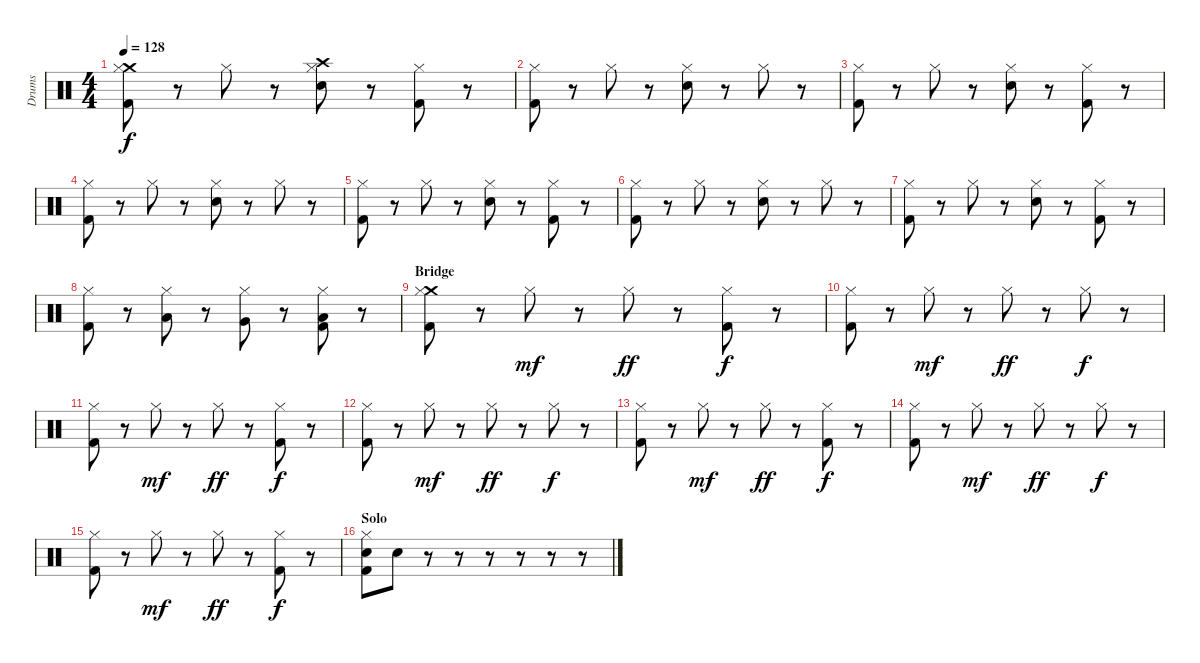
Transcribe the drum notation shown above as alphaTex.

\track ("Drums" "Drums") {instrument percussion}
\staff {score}
\articulation defaults
\ts (4 4)
\tempo 128
\clef neutral
\ks c
("Crash medium (hit)" "Hi-Hat (closed)" "Kick (hit) 2").8{dy f} r.8 "Hi-Hat (closed)".8 r.8 ("Crash high (hit)" "Hi-Hat (closed)" "Snare (hit) 2").8 r.8 ("Hi-Hat (closed)" "Kick (hit) 2").8 r.8 |
("Hi-Hat (closed)" "Kick (hit) 2").8 r.8 "Hi-Hat (closed)".8 r.8 ("Snare (hit) 2" "Hi-Hat (closed)").8 r.8 "Hi-Hat (closed)".8 r.8 |
("Hi-Hat (closed)" "Kick (hit) 2").8 r.8 "Hi-Hat (closed)".8 r.8 ("Snare (hit) 2" "Hi-Hat (closed)").8 r.8 ("Hi-Hat (closed)" "Kick (hit) 2").8 r.8 |
("Hi-Hat (closed)" "Kick (hit) 2").8 r.8 "Hi-Hat (closed)".8 r.8 ("Snare (hit) 2" "Hi-Hat (closed)").8 r.8 "Hi-Hat (closed)".8 r.8 |
("Hi-Hat (closed)" "Kick (hit) 2").8 r.8 "Hi-Hat (closed)".8 r.8 ("Snare (hit) 2" "Hi-Hat (closed)").8 r.8 ("Hi-Hat (closed)" "Kick (hit) 2").8 r.8 |
("Hi-Hat (closed)" "Kick (hit) 2").8 r.8 "Hi-Hat (closed)".8 r.8 ("Snare (hit) 2" "Hi-Hat (closed)").8 r.8 "Hi-Hat (closed)".8 r.8 |
("Hi-Hat (closed)" "Kick (hit) 2").8 r.8 "Hi-Hat (closed)".8 r.8 ("Snare (hit) 2" "Hi-Hat (closed)").8 r.8 ("Hi-Hat (closed)" "Kick (hit) 2").8 r.8 |
("Hi-Hat (closed)" "Kick (hit) 2").8 r.8 ("Hi-Hat (closed)" "Low Tom (hit)").8 r.8 ("Hi-Hat (closed)" "Very Low Tom (hit)").8 r.8 ("Hi-Hat (closed)" "Low Floor Tom (hit)" "Kick (hit) 2").8 r.8 |
\section ("" "Bridge")
("Crash medium (hit)" "Hi-Hat (closed)" "Kick (hit) 2").8 r.8 "Hi-Hat (closed)".8{dy mf} r.8 "Hi-Hat (closed)".8{dy ff} r.8 ("Hi-Hat (closed)" "Kick (hit) 2").8{dy f} r.8 |
("Hi-Hat (closed)" "Kick (hit) 2").8 r.8 "Hi-Hat (closed)".8{dy mf} r.8 "Hi-Hat (closed)".8{dy ff} r.8 "Hi-Hat (closed)".8{dy f} r.8 |
("Hi-Hat (closed)" "Kick (hit) 2").8 r.8 "Hi-Hat (closed)".8{dy mf} r.8 "Hi-Hat (closed)".8{dy ff} r.8 ("Hi-Hat (closed)" "Kick (hit) 2").8{dy f} r.8 |
("Hi-Hat (closed)" "Kick (hit) 2").8 r.8 "Hi-Hat (closed)".8{dy mf} r.8 "Hi-Hat (closed)".8{dy ff} r.8 "Hi-Hat (closed)".8{dy f} r.8 |
("Hi-Hat (closed)" "Kick (hit) 2").8 r.8 "Hi-Hat (closed)".8{dy mf} r.8 "Hi-Hat (closed)".8{dy ff} r.8 ("Hi-Hat (closed)" "Kick (hit) 2").8{dy f} r.8 |
("Hi-Hat (closed)" "Kick (hit) 2").8 r.8 "Hi-Hat (closed)".8{dy mf} r.8 "Hi-Hat (closed)".8{dy ff} r.8 "Hi-Hat (closed)".8{dy f} r.8 |
("Hi-Hat (closed)" "Kick (hit) 2").8 r.8 "Hi-Hat (closed)".8{dy mf} r.8 "Hi-Hat (closed)".8{dy ff} r.8 ("Hi-Hat (closed)" "Kick (hit) 2").8{dy f} r.8 |
\section ("" "Solo")
("Hi-Hat (closed)" "Snare (hit) 2" "Kick (hit) 2").8 "Snare (hit) 2".8 r.8 r.8 r.8 r.8 r.8 r.8
